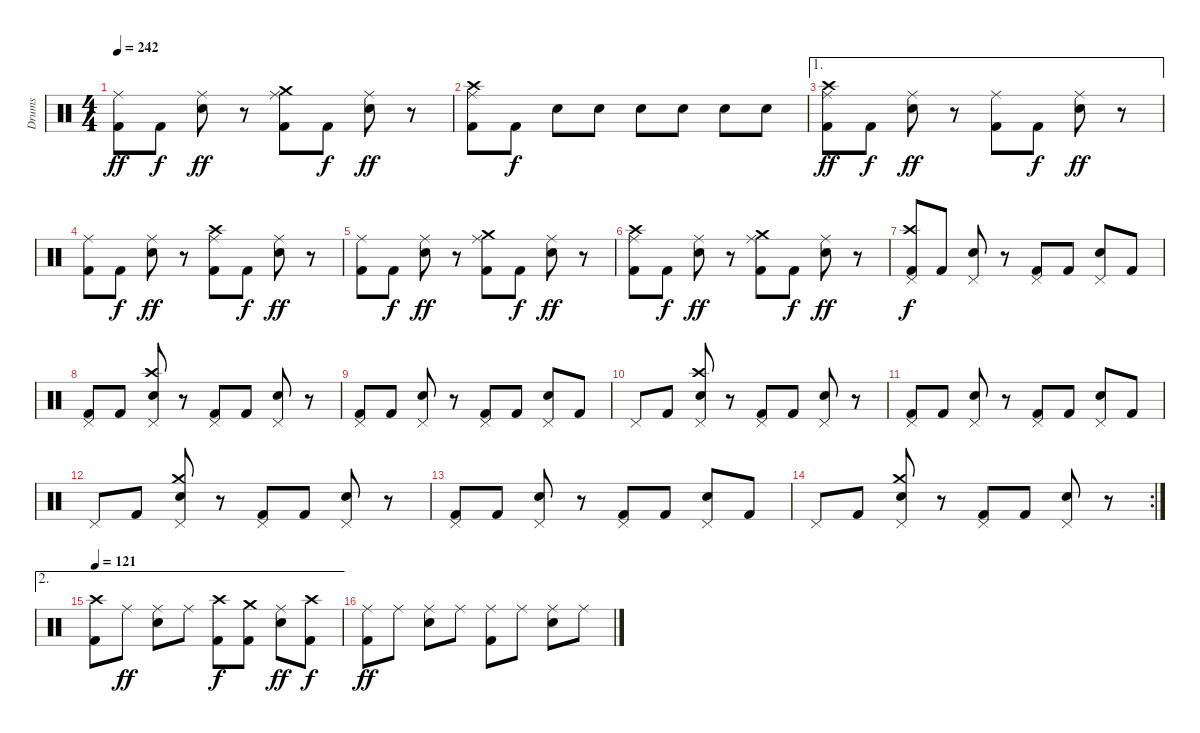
\track ("Drums" "Drums") {instrument percussion}
\staff {score}
\articulation defaults
\ts (4 4)
\tempo 242
\clef neutral
\ks c
("Ride (middle)" "Kick (hit) 2").8{dy ff} "Kick (hit) 2".8{dy f} ("Ride (middle)" "Electric Snare (hit)").8{dy ff} r.8 ("Ride (middle)" "Crash medium (hit)" "Kick (hit) 2").8 "Kick (hit) 2".8{dy f} ("Ride (middle)" "Electric Snare (hit)").8{dy ff} r.8 |
("Ride (middle)" "Crash high (hit)" "Kick (hit) 2").8 "Kick (hit) 2".8{dy f} "Electric Snare (hit)".8 "Electric Snare (hit)".8 "Electric Snare (hit)".8 "Electric Snare (hit)".8 "Electric Snare (hit)".8 "Electric Snare (hit)".8 |
\ae 1
("Ride (middle)" "Crash high (hit)" "Kick (hit) 2").8{dy ff} "Kick (hit) 2".8{dy f} ("Ride (middle)" "Electric Snare (hit)").8{dy ff} r.8 ("Ride (middle)" "Kick (hit) 2").8 "Kick (hit) 2".8{dy f} ("Ride (middle)" "Electric Snare (hit)").8{dy ff} r.8 |
("Ride (middle)" "Kick (hit) 2").8 "Kick (hit) 2".8{dy f} ("Ride (middle)" "Electric Snare (hit)").8{dy ff} r.8 ("Ride (middle)" "Crash high (hit)" "Kick (hit) 2").8 "Kick (hit) 2".8{dy f} ("Ride (middle)" "Electric Snare (hit)").8{dy ff} r.8 |
("Ride (middle)" "Kick (hit) 2").8 "Kick (hit) 2".8{dy f} ("Ride (middle)" "Electric Snare (hit)").8{dy ff} r.8 ("Ride (middle)" "Crash medium (hit)" "Kick (hit) 2").8 "Kick (hit) 2".8{dy f} ("Ride (middle)" "Electric Snare (hit)").8{dy ff} r.8 |
("Ride (middle)" "Crash high (hit)" "Kick (hit) 2").8 "Kick (hit) 2".8{dy f} ("Ride (middle)" "Electric Snare (hit)").8{dy ff} r.8 ("Ride (middle)" "Crash medium (hit)" "Kick (hit) 2").8 "Kick (hit) 2".8{dy f} ("Ride (middle)" "Electric Snare (hit)").8{dy ff} r.8 |
("Pedal Hi-Hat (hit)" "Crash high (hit)" "Kick (hit) 2").8{dy f} "Kick (hit) 2".8 ("Pedal Hi-Hat (hit)" "Electric Snare (hit)").8 r.8 ("Pedal Hi-Hat (hit)" "Kick (hit) 2").8 "Kick (hit) 2".8 ("Pedal Hi-Hat (hit)" "Electric Snare (hit)").8 "Kick (hit) 2".8 |
("Pedal Hi-Hat (hit)" "Kick (hit) 2").8 "Kick (hit) 2".8 ("Pedal Hi-Hat (hit)" "Electric Snare (hit)" "Crash high (hit)").8 r.8 ("Pedal Hi-Hat (hit)" "Kick (hit) 2").8 "Kick (hit) 2".8 ("Pedal Hi-Hat (hit)" "Electric Snare (hit)").8 r.8 |
("Pedal Hi-Hat (hit)" "Kick (hit) 2").8 "Kick (hit) 2".8 ("Pedal Hi-Hat (hit)" "Electric Snare (hit)").8 r.8 ("Pedal Hi-Hat (hit)" "Kick (hit) 2").8 "Kick (hit) 2".8 ("Pedal Hi-Hat (hit)" "Electric Snare (hit)").8 "Kick (hit) 2".8 |
"Pedal Hi-Hat (hit)".8 "Kick (hit) 2".8 ("Pedal Hi-Hat (hit)" "Electric Snare (hit)" "Crash high (hit)").8 r.8 ("Pedal Hi-Hat (hit)" "Kick (hit) 2").8 "Kick (hit) 2".8 ("Pedal Hi-Hat (hit)" "Electric Snare (hit)").8 r.8 |
("Pedal Hi-Hat (hit)" "Kick (hit) 2").8 "Kick (hit) 2".8 ("Pedal Hi-Hat (hit)" "Electric Snare (hit)").8 r.8 ("Pedal Hi-Hat (hit)" "Kick (hit) 2").8 "Kick (hit) 2".8 ("Pedal Hi-Hat (hit)" "Electric Snare (hit)").8 "Kick (hit) 2".8 |
"Pedal Hi-Hat (hit)".8 "Kick (hit) 2".8 ("Pedal Hi-Hat (hit)" "Electric Snare (hit)" "Crash medium (hit)").8 r.8 ("Pedal Hi-Hat (hit)" "Kick (hit) 2").8 "Kick (hit) 2".8 ("Pedal Hi-Hat (hit)" "Electric Snare (hit)").8 r.8 |
("Pedal Hi-Hat (hit)" "Kick (hit) 2").8 "Kick (hit) 2".8 ("Pedal Hi-Hat (hit)" "Electric Snare (hit)").8 r.8 ("Pedal Hi-Hat (hit)" "Kick (hit) 2").8 "Kick (hit) 2".8 ("Pedal Hi-Hat (hit)" "Electric Snare (hit)").8 "Kick (hit) 2".8 |
\rc 2 "Pedal Hi-Hat (hit)".8 "Kick (hit) 2".8
("Pedal Hi-Hat (hit)" "Electric Snare (hit)" "Crash medium (hit)").8 r.8 ("Pedal Hi-Hat (hit)" "Kick (hit) 2").8 "Kick (hit) 2".8 ("Pedal Hi-Hat (hit)" "Electric Snare (hit)").8 r.8 |
\ae 2
\tempo 121
("Crash high (hit)" "Kick (hit) 2").8 "Ride (middle)".8{dy ff} ("Ride (middle)" "Electric Snare (hit)").8 "Ride (middle)".8 ("Crash high (hit)" "Kick (hit) 2").8{dy f} ("Crash medium (hit)" "Kick (hit) 2").8 ("Ride (middle)" "Electric Snare (hit)").8{dy ff} ("Crash high (hit)" "Kick (hit) 2").8{dy f} |
("Ride (middle)" "Kick (hit) 2").8{dy ff} "Ride (middle)".8 ("Ride (middle)" "Electric Snare (hit)").8 "Ride (middle)".8 ("Ride (middle)" "Kick (hit) 2").8 "Ride (middle)".8 ("Ride (middle)" "Electric Snare (hit)").8 "Ride (middle)".8
